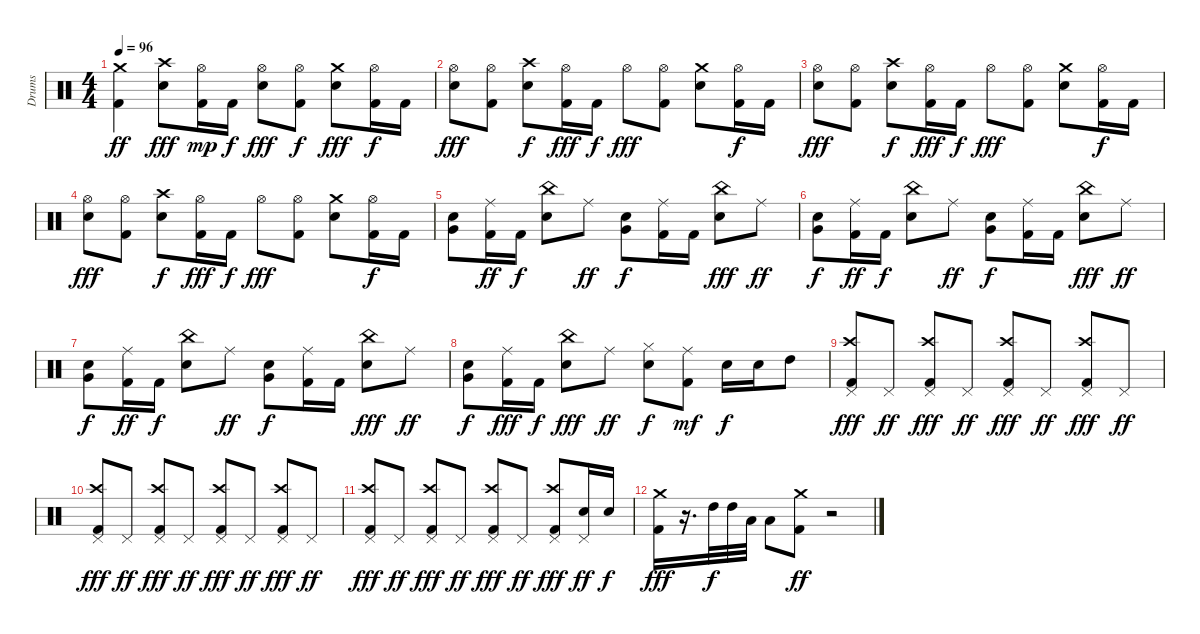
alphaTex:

\track ("Drums" "Drums") {instrument percussion}
\staff {score}
\articulation defaults
\ts (4 4)
\tempo 96
\clef neutral
\ks c
("Crash medium (hit)" "Kick (hit) 2").4{dy ff} ("Crash high (hit)" "Snare (hit) 2").8{dy fff} ("Hi-Hat (open)" "Kick (hit) 2").16{dy mp} "Kick (hit) 2".16{dy f} ("Hi-Hat (open)" "Snare (hit) 2").8{dy fff} ("Hi-Hat (open)" "Kick (hit) 2").8{dy f} ("Crash medium (hit)" "Snare (hit) 2").8{dy fff} ("Hi-Hat (open)" "Kick (hit) 2").16{dy f} "Kick (hit) 2".16 |
("Hi-Hat (open)" "Snare (hit) 2").8{dy fff} ("Hi-Hat (open)" "Kick (hit) 2").8 ("Crash high (hit)" "Snare (hit) 2").8{dy f} ("Hi-Hat (open)" "Kick (hit) 2").16{dy fff} "Kick (hit) 2".16{dy f} "Hi-Hat (open)".8{dy fff} ("Hi-Hat (open)" "Kick (hit) 2").8 ("Crash medium (hit)" "Snare (hit) 2").8 ("Hi-Hat (open)" "Kick (hit) 2").16{dy f} "Kick (hit) 2".16 |
("Hi-Hat (open)" "Snare (hit) 2").8{dy fff} ("Hi-Hat (open)" "Kick (hit) 2").8 ("Crash high (hit)" "Snare (hit) 2").8{dy f} ("Hi-Hat (open)" "Kick (hit) 2").16{dy fff} "Kick (hit) 2".16{dy f} "Hi-Hat (open)".8{dy fff} ("Hi-Hat (open)" "Kick (hit) 2").8 ("Crash medium (hit)" "Snare (hit) 2").8 ("Hi-Hat (open)" "Kick (hit) 2").16{dy f} "Kick (hit) 2".16 |
("Hi-Hat (open)" "Snare (hit) 2").8{dy fff} ("Hi-Hat (open)" "Kick (hit) 2").8 ("Crash high (hit)" "Snare (hit) 2").8{dy f} ("Hi-Hat (open)" "Kick (hit) 2").16{dy fff} "Kick (hit) 2".16{dy f} "Hi-Hat (open)".8{dy fff} ("Hi-Hat (open)" "Kick (hit) 2").8 ("Crash medium (hit)" "Snare (hit) 2").8 ("Hi-Hat (open)" "Kick (hit) 2").16{dy f} "Kick (hit) 2".16 |
("Snare (hit) 2" "Very Low Tom (hit)").8 ("Ride (middle)" "Kick (hit) 2").16{dy ff} "Kick (hit) 2".16{dy f} ("China (hit)" "Snare (hit) 2").8 "Ride (middle)".8{dy ff} ("Snare (hit) 2" "Very Low Tom (hit)").8{dy f} ("Ride (middle)" "Kick (hit) 2").16 "Kick (hit) 2".16 ("China (hit)" "Snare (hit) 2").8{dy fff} "Ride (middle)".8{dy ff} |
("Snare (hit) 2" "Very Low Tom (hit)").8{dy f} ("Ride (middle)" "Kick (hit) 2").16{dy ff} "Kick (hit) 2".16{dy f} ("China (hit)" "Snare (hit) 2").8 "Ride (middle)".8{dy ff} ("Snare (hit) 2" "Very Low Tom (hit)").8{dy f} ("Ride (middle)" "Kick (hit) 2").16 "Kick (hit) 2".16 ("China (hit)" "Snare (hit) 2").8{dy fff} "Ride (middle)".8{dy ff} |
("Snare (hit) 2" "Very Low Tom (hit)").8{dy f} ("Ride (middle)" "Kick (hit) 2").16{dy ff} "Kick (hit) 2".16{dy f} ("China (hit)" "Snare (hit) 2").8 "Ride (middle)".8{dy ff} ("Snare (hit) 2" "Very Low Tom (hit)").8{dy f} ("Ride (middle)" "Kick (hit) 2").16 "Kick (hit) 2".16 ("China (hit)" "Snare (hit) 2").8{dy fff} "Ride (middle)".8{dy ff} |
("Snare (hit) 2" "Very Low Tom (hit)").8{dy f} ("Ride (middle)" "Kick (hit) 2").16{dy fff} "Kick (hit) 2".16{dy f} ("China (hit)" "Snare (hit) 2").8{dy fff} "Ride (middle)".8{dy ff} ("Snare (hit) 2" "Hi-Hat (closed)").8{dy f} ("Ride (middle)" "Kick (hit) 2").8{dy mf} "Snare (hit) 2".16{dy f} "Snare (hit) 2".16 "High Tom (hit)".8 |
("Pedal Hi-Hat (hit)" "Crash high (hit)" "Kick (hit) 2").8{dy fff} "Pedal Hi-Hat (hit)".8{dy ff} ("Pedal Hi-Hat (hit)" "Crash high (hit)" "Kick (hit) 2").8{dy fff} "Pedal Hi-Hat (hit)".8{dy ff} ("Pedal Hi-Hat (hit)" "Crash high (hit)" "Kick (hit) 2").8{dy fff} "Pedal Hi-Hat (hit)".8{dy ff} ("Pedal Hi-Hat (hit)" "Crash high (hit)" "Kick (hit) 2").8{dy fff} "Pedal Hi-Hat (hit)".8{dy ff} |
("Pedal Hi-Hat (hit)" "Crash high (hit)" "Kick (hit) 2").8{dy fff} "Pedal Hi-Hat (hit)".8{dy ff} ("Pedal Hi-Hat (hit)" "Crash high (hit)" "Kick (hit) 2").8{dy fff} "Pedal Hi-Hat (hit)".8{dy ff} ("Pedal Hi-Hat (hit)" "Crash high (hit)" "Kick (hit) 2").8{dy fff} "Pedal Hi-Hat (hit)".8{dy ff} ("Pedal Hi-Hat (hit)" "Crash high (hit)" "Kick (hit) 2").8{dy fff} "Pedal Hi-Hat (hit)".8{dy ff} |
("Pedal Hi-Hat (hit)" "Crash high (hit)" "Kick (hit) 2").8{dy fff} "Pedal Hi-Hat (hit)".8{dy ff} ("Pedal Hi-Hat (hit)" "Crash high (hit)" "Kick (hit) 2").8{dy fff} "Pedal Hi-Hat (hit)".8{dy ff} ("Pedal Hi-Hat (hit)" "Crash high (hit)" "Kick (hit) 2").8{dy fff} "Pedal Hi-Hat (hit)".8{dy ff} ("Pedal Hi-Hat (hit)" "Crash high (hit)" "Kick (hit) 2").8{dy fff} ("Pedal Hi-Hat (hit)" "Snare (hit) 2").16{dy ff} "Snare (hit) 2".16{dy f} |
("Crash medium (hit)" "Kick (hit) 2").16{dy fff} r.16{d} "High Tom (hit)".32{dy f} "High Tom (hit)".32 "Low Tom (hit)".32 "Low Tom (hit)".8 ("Crash medium (hit)" "Kick (hit) 2").8{dy ff} r.2
